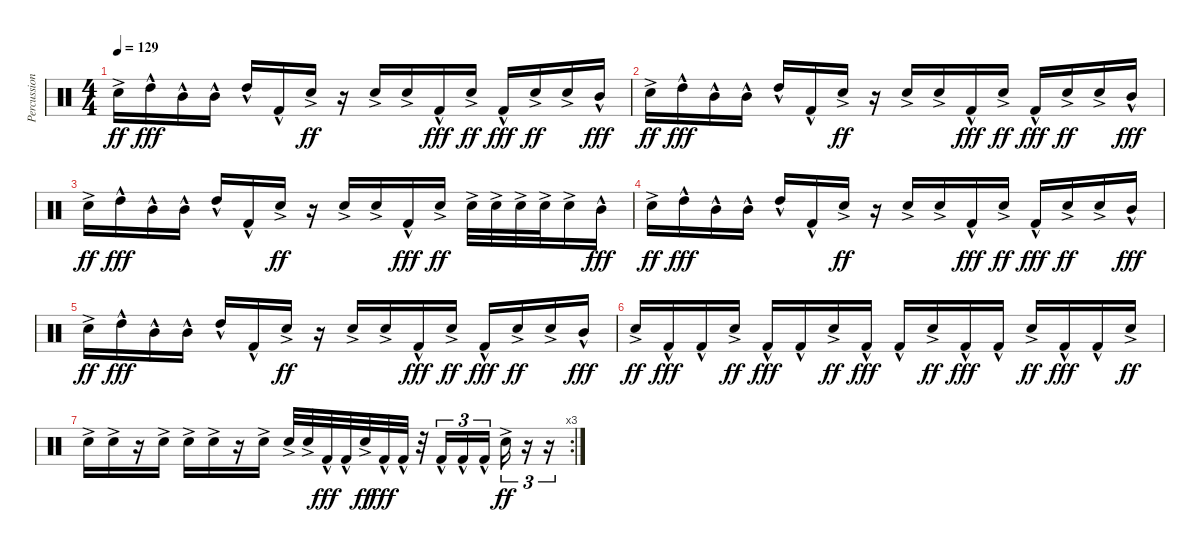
\track ("Percussion" "Percussion") {instrument percussion bank 2}
\staff {score}
\articulation defaults
\ts (4 4)
\tempo 129
\clef neutral
\ks c "Snare (hit) 2"{ac}.16{dy ff} "High Tom (hit)"{hac}.16{dy fff} "Mid Tom (hit)"{hac}.16 "Mid Tom (hit)"{hac}.16 "High Tom (hit)"{hac}.16 "Kick (hit) 2"{hac}.16 "Snare (hit) 2"{ac}.16{dy ff}
r.16 "Snare (hit) 2"{ac}.16 "Snare (hit) 2"{ac}.16 "Kick (hit) 2"{hac}.16{dy fff} "Snare (hit) 2"{ac}.16{dy ff} "Kick (hit) 2"{hac}.16{dy fff} "Snare (hit) 2"{ac}.16{dy ff} "Snare (hit) 2"{ac}.16 "Mid Tom (hit)"{hac}.16{dy fff} |
"Snare (hit) 2"{ac}.16{dy ff} "High Tom (hit)"{hac}.16{dy fff} "Mid Tom (hit)"{hac}.16 "Mid Tom (hit)"{hac}.16 "High Tom (hit)"{hac}.16 "Kick (hit) 2"{hac}.16 "Snare (hit) 2"{ac}.16{dy ff} r.16 "Snare (hit) 2"{ac}.16 "Snare (hit) 2"{ac}.16 "Kick (hit) 2"{hac}.16{dy fff} "Snare (hit) 2"{ac}.16{dy ff} "Kick (hit) 2"{hac}.16{dy fff} "Snare (hit) 2"{ac}.16{dy ff} "Snare (hit) 2"{ac}.16 "Mid Tom (hit)"{hac}.16{dy fff} |
"Snare (hit) 2"{ac}.16{dy ff} "High Tom (hit)"{hac}.16{dy fff} "Mid Tom (hit)"{hac}.16 "Mid Tom (hit)"{hac}.16 "High Tom (hit)"{hac}.16 "Kick (hit) 2"{hac}.16 "Snare (hit) 2"{ac}.16{dy ff} r.16 "Snare (hit) 2"{ac}.16 "Snare (hit) 2"{ac}.16 "Kick (hit) 2"{hac}.16{dy fff} "Snare (hit) 2"{ac}.16{dy ff} "Snare (hit) 2"{ac}.32 "Snare (hit) 2"{ac}.32 "Snare (hit) 2"{ac}.32 "Snare (hit) 2"{ac}.32 "Snare (hit) 2"{ac}.16 "Mid Tom (hit)"{hac}.16{dy fff} |
"Snare (hit) 2"{ac}.16{dy ff} "High Tom (hit)"{hac}.16{dy fff} "Mid Tom (hit)"{hac}.16 "Mid Tom (hit)"{hac}.16 "High Tom (hit)"{hac}.16 "Kick (hit) 2"{hac}.16 "Snare (hit) 2"{ac}.16{dy ff} r.16 "Snare (hit) 2"{ac}.16 "Snare (hit) 2"{ac}.16 "Kick (hit) 2"{hac}.16{dy fff} "Snare (hit) 2"{ac}.16{dy ff} "Kick (hit) 2"{hac}.16{dy fff} "Snare (hit) 2"{ac}.16{dy ff} "Snare (hit) 2"{ac}.16 "Mid Tom (hit)"{hac}.16{dy fff} |
"Snare (hit) 2"{ac}.16{dy ff} "High Tom (hit)"{hac}.16{dy fff} "Mid Tom (hit)"{hac}.16 "Mid Tom (hit)"{hac}.16 "High Tom (hit)"{hac}.16 "Kick (hit) 2"{hac}.16 "Snare (hit) 2"{ac}.16{dy ff} r.16 "Snare (hit) 2"{ac}.16 "Snare (hit) 2"{ac}.16 "Kick (hit) 2"{hac}.16{dy fff} "Snare (hit) 2"{ac}.16{dy ff} "Kick (hit) 2"{hac}.16{dy fff} "Snare (hit) 2"{ac}.16{dy ff} "Snare (hit) 2"{ac}.16 "Mid Tom (hit)"{hac}.16{dy fff} |
"Snare (hit) 2"{ac}.16{dy ff} "Kick (hit) 2"{hac}.16{dy fff} "Kick (hit) 2"{hac}.16 "Snare (hit) 2"{ac}.16{dy ff} "Kick (hit) 2"{hac}.16{dy fff} "Kick (hit) 2"{hac}.16 "Snare (hit) 2"{ac}.16{dy ff} "Kick (hit) 2"{hac}.16{dy fff} "Kick (hit) 2"{hac}.16 "Snare (hit) 2"{ac}.16{dy ff} "Kick (hit) 2"{hac}.16{dy fff} "Kick (hit) 2"{hac}.16 "Snare (hit) 2"{ac}.16{dy ff} "Kick (hit) 2"{hac}.16{dy fff} "Kick (hit) 2"{hac}.16 "Snare (hit) 2"{ac}.16{dy ff} |
\rc 3 "Snare (hit) 2"{ac}.16 "Snare (hit) 2"{ac}.16
r.16 "Snare (hit) 2"{ac}.16 "Snare (hit) 2"{ac}.16 "Snare (hit) 2"{ac}.16 r.16 "Snare (hit) 2"{ac}.16 "Snare (hit) 2"{ac}.32 "Snare (hit) 2"{ac}.32 "Kick (hit) 2"{hac}.32{dy fff} "Kick (hit) 2"{hac}.32 "Snare (hit) 2"{ac}.32{dy ff} "Kick (hit) 2"{hac}.32{dy fff} "Kick (hit) 2"{hac}.32 r.32 "Kick (hit) 2"{hac}.16{tu (3 2)} "Kick (hit) 2"{hac}.16{tu (3 2)} "Kick (hit) 2"{hac}.16{tu (3 2) beam splitsecondary} "Snare (hit) 2"{ac}.16{tu (3 2) dy ff} r.16{tu (3 2)} r.16{tu (3 2)}
